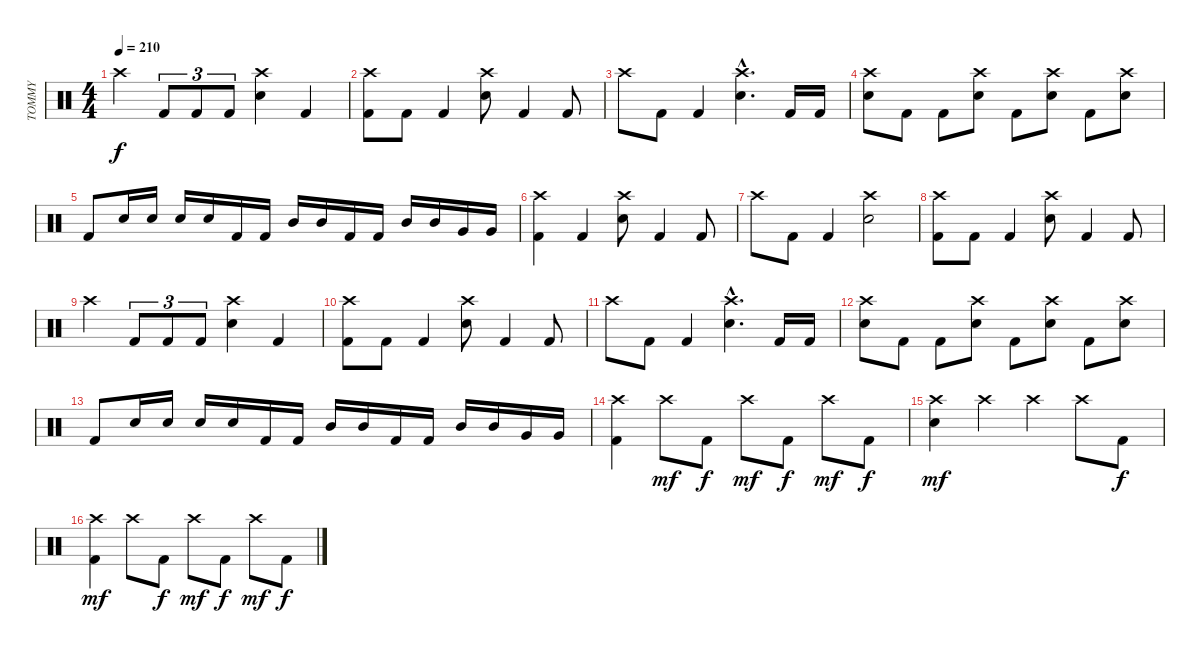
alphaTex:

\track ("TOMMY" "TOMMY") {instrument percussion}
\staff {score}
\articulation defaults
\ts (4 4)
\tempo 210
\clef neutral
\ks c "Crash high (hit)".4{dy f} "Kick (hit) 2".8{tu (3 2)} "Kick (hit) 2".8{tu (3 2)} "Kick (hit) 2".8{tu (3 2)}
("Snare (hit) 2" "Crash high (hit)").4 "Kick (hit) 2".4 |
("Kick (hit) 2" "Crash high (hit)").8 "Kick (hit) 2".8 "Kick (hit) 2".4 ("Snare (hit) 2" "Crash high (hit)").8 "Kick (hit) 2".4 "Kick (hit) 2".8 |
"Crash high (hit)".8 "Kick (hit) 2".8 "Kick (hit) 2".4 ("Snare (hit) 2"{hac} "Crash high (hit)"{hac}).4{d} "Kick (hit) 2".16 "Kick (hit) 2".16 |
("Snare (hit) 2" "Crash high (hit)").8 "Kick (hit) 2".8 "Kick (hit) 2".8 ("Snare (hit) 2" "Crash high (hit)").8 "Kick (hit) 2".8 ("Snare (hit) 2" "Crash high (hit)").8 "Kick (hit) 2".8 ("Snare (hit) 2" "Crash high (hit)").8 |
"Kick (hit) 2".8 "Snare (hit) 2".16 "Snare (hit) 2".16 "Snare (hit) 2".16 "Snare (hit) 2".16 "Kick (hit) 2".16 "Kick (hit) 2".16 "Mid Tom (hit)".16 "Mid Tom (hit)".16 "Kick (hit) 2".16 "Kick (hit) 2".16 "Mid Tom (hit)".16 "Mid Tom (hit)".16 "Very Low Tom (hit)".16 "Very Low Tom (hit)".16 |
("Kick (hit) 2" "Crash high (hit)").4 "Kick (hit) 2".4 ("Snare (hit) 2" "Crash high (hit)").8 "Kick (hit) 2".4 "Kick (hit) 2".8 |
"Crash high (hit)".8 "Kick (hit) 2".8 "Kick (hit) 2".4 ("Snare (hit) 2" "Crash high (hit)").2 |
("Kick (hit) 2" "Crash high (hit)").8 "Kick (hit) 2".8 "Kick (hit) 2".4 ("Snare (hit) 2" "Crash high (hit)").8 "Kick (hit) 2".4 "Kick (hit) 2".8 |
"Crash high (hit)".4 "Kick (hit) 2".8{tu (3 2)} "Kick (hit) 2".8{tu (3 2)} "Kick (hit) 2".8{tu (3 2)} ("Snare (hit) 2" "Crash high (hit)").4 "Kick (hit) 2".4 |
("Kick (hit) 2" "Crash high (hit)").8 "Kick (hit) 2".8 "Kick (hit) 2".4 ("Snare (hit) 2" "Crash high (hit)").8 "Kick (hit) 2".4 "Kick (hit) 2".8 |
"Crash high (hit)".8 "Kick (hit) 2".8 "Kick (hit) 2".4 ("Snare (hit) 2"{hac} "Crash high (hit)"{hac}).4{d} "Kick (hit) 2".16 "Kick (hit) 2".16 |
("Snare (hit) 2" "Crash high (hit)").8 "Kick (hit) 2".8 "Kick (hit) 2".8 ("Snare (hit) 2" "Crash high (hit)").8 "Kick (hit) 2".8 ("Snare (hit) 2" "Crash high (hit)").8 "Kick (hit) 2".8 ("Snare (hit) 2" "Crash high (hit)").8 |
"Kick (hit) 2".8 "Snare (hit) 2".16 "Snare (hit) 2".16 "Snare (hit) 2".16 "Snare (hit) 2".16 "Kick (hit) 2".16 "Kick (hit) 2".16 "Mid Tom (hit)".16 "Mid Tom (hit)".16 "Kick (hit) 2".16 "Kick (hit) 2".16 "Mid Tom (hit)".16 "Mid Tom (hit)".16 "Very Low Tom (hit)".16 "Very Low Tom (hit)".16 |
("Kick (hit) 2" "Crash high (hit)").4 "Crash high (hit)".8{dy mf} "Kick (hit) 2".8{dy f} "Crash high (hit)".8{dy mf} "Kick (hit) 2".8{dy f} "Crash high (hit)".8{dy mf} "Kick (hit) 2".8{dy f} |
("Snare (hit) 2" "Crash high (hit)").4{dy mf} "Crash high (hit)".4 "Crash high (hit)".4 "Crash high (hit)".8 "Kick (hit) 2".8{dy f} |
("Kick (hit) 2" "Crash high (hit)").4{dy mf} "Crash high (hit)".8 "Kick (hit) 2".8{dy f} "Crash high (hit)".8{dy mf} "Kick (hit) 2".8{dy f} "Crash high (hit)".8{dy mf} "Kick (hit) 2".8{dy f}
